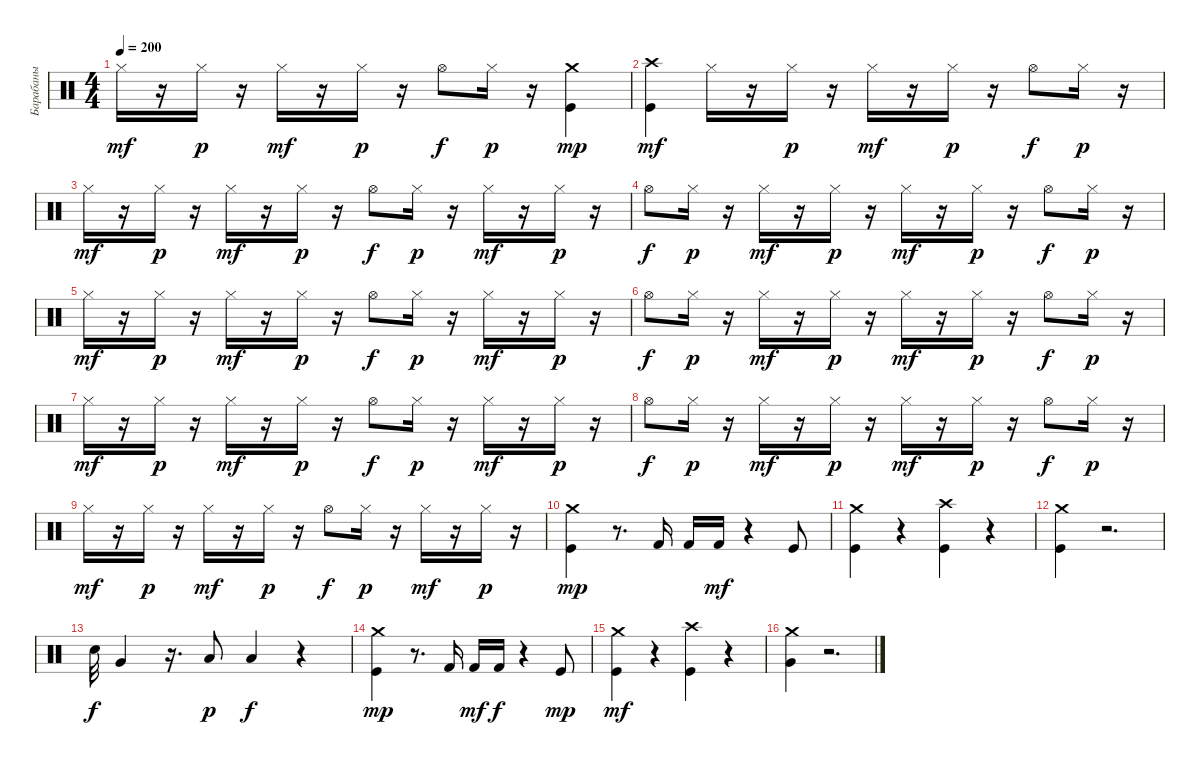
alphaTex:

\track ("Барабаны" "Барабаны") {instrument percussion}
\staff {score}
\articulation defaults
\ts (4 4)
\tempo 200
\clef neutral
\ks c "Hi-Hat (closed)".16{dy mf}
r.16 "Hi-Hat (closed)".16{dy p} r.16 "Hi-Hat (closed)".16{dy mf} r.16 "Hi-Hat (closed)".16{dy p} r.16 "Hi-Hat (open)".8{dy f} "Hi-Hat (closed)".16{dy p} r.16 ("Crash medium (hit)" "Kick (hit)").4{dy mp} |
("Crash high (hit)" "Kick (hit)").4{dy mf} "Hi-Hat (closed)".16 r.16 "Hi-Hat (closed)".16{dy p} r.16 "Hi-Hat (closed)".16{dy mf} r.16 "Hi-Hat (closed)".16{dy p} r.16 "Hi-Hat (open)".8{dy f} "Hi-Hat (closed)".16{dy p} r.16 |
"Hi-Hat (closed)".16{dy mf} r.16 "Hi-Hat (closed)".16{dy p} r.16 "Hi-Hat (closed)".16{dy mf} r.16 "Hi-Hat (closed)".16{dy p} r.16 "Hi-Hat (open)".8{dy f} "Hi-Hat (closed)".16{dy p} r.16 "Hi-Hat (closed)".16{dy mf} r.16 "Hi-Hat (closed)".16{dy p} r.16 |
"Hi-Hat (open)".8{dy f} "Hi-Hat (closed)".16{dy p} r.16 "Hi-Hat (closed)".16{dy mf} r.16 "Hi-Hat (closed)".16{dy p} r.16 "Hi-Hat (closed)".16{dy mf} r.16 "Hi-Hat (closed)".16{dy p} r.16 "Hi-Hat (open)".8{dy f} "Hi-Hat (closed)".16{dy p} r.16 |
"Hi-Hat (closed)".16{dy mf} r.16 "Hi-Hat (closed)".16{dy p} r.16 "Hi-Hat (closed)".16{dy mf} r.16 "Hi-Hat (closed)".16{dy p} r.16 "Hi-Hat (open)".8{dy f} "Hi-Hat (closed)".16{dy p} r.16 "Hi-Hat (closed)".16{dy mf} r.16 "Hi-Hat (closed)".16{dy p} r.16 |
"Hi-Hat (open)".8{dy f} "Hi-Hat (closed)".16{dy p} r.16 "Hi-Hat (closed)".16{dy mf} r.16 "Hi-Hat (closed)".16{dy p} r.16 "Hi-Hat (closed)".16{dy mf} r.16 "Hi-Hat (closed)".16{dy p} r.16 "Hi-Hat (open)".8{dy f} "Hi-Hat (closed)".16{dy p} r.16 |
"Hi-Hat (closed)".16{dy mf} r.16 "Hi-Hat (closed)".16{dy p} r.16 "Hi-Hat (closed)".16{dy mf} r.16 "Hi-Hat (closed)".16{dy p} r.16 "Hi-Hat (open)".8{dy f} "Hi-Hat (closed)".16{dy p} r.16 "Hi-Hat (closed)".16{dy mf} r.16 "Hi-Hat (closed)".16{dy p} r.16 |
"Hi-Hat (open)".8{dy f} "Hi-Hat (closed)".16{dy p} r.16 "Hi-Hat (closed)".16{dy mf} r.16 "Hi-Hat (closed)".16{dy p} r.16 "Hi-Hat (closed)".16{dy mf} r.16 "Hi-Hat (closed)".16{dy p} r.16 "Hi-Hat (open)".8{dy f} "Hi-Hat (closed)".16{dy p} r.16 |
"Hi-Hat (closed)".16{dy mf} r.16 "Hi-Hat (closed)".16{dy p} r.16 "Hi-Hat (closed)".16{dy mf} r.16 "Hi-Hat (closed)".16{dy p} r.16 "Hi-Hat (open)".8{dy f} "Hi-Hat (closed)".16{dy p} r.16 "Hi-Hat (closed)".16{dy mf} r.16 "Hi-Hat (closed)".16{dy p} r.16 |
("Crash medium (hit)" "Kick (hit)").4{dy mp} r.8{d} "Kick (hit) 2".16 "Kick (hit) 2".16 "Kick (hit) 2".16{dy mf} r.4 "Kick (hit)".8 |
("Kick (hit)" "Crash medium (hit)").4 r.4 ("Crash high (hit)" "Kick (hit)").4 r.4 |
("Crash medium (hit)" "Kick (hit)").4 r.2{d} |
"Snare (hit) 2".32{dy f} "Very Low Tom (hit)".4 r.16{d} "Low Tom (hit)".8{dy p} "Low Floor Tom (hit)".4{dy f} r.4 |
("Crash medium (hit)" "Kick (hit)").4{dy mp} r.8{d} "Kick (hit) 2".16 "Kick (hit) 2".16{dy mf} "Kick (hit) 2".16{dy f} r.4 "Kick (hit)".8{dy mp} |
("Kick (hit)" "Crash medium (hit)").4{dy mf} r.4 ("Crash high (hit)" "Kick (hit)").4 r.4 |
("Crash medium (hit)" "Very Low Tom (hit)").4 r.2{d}
